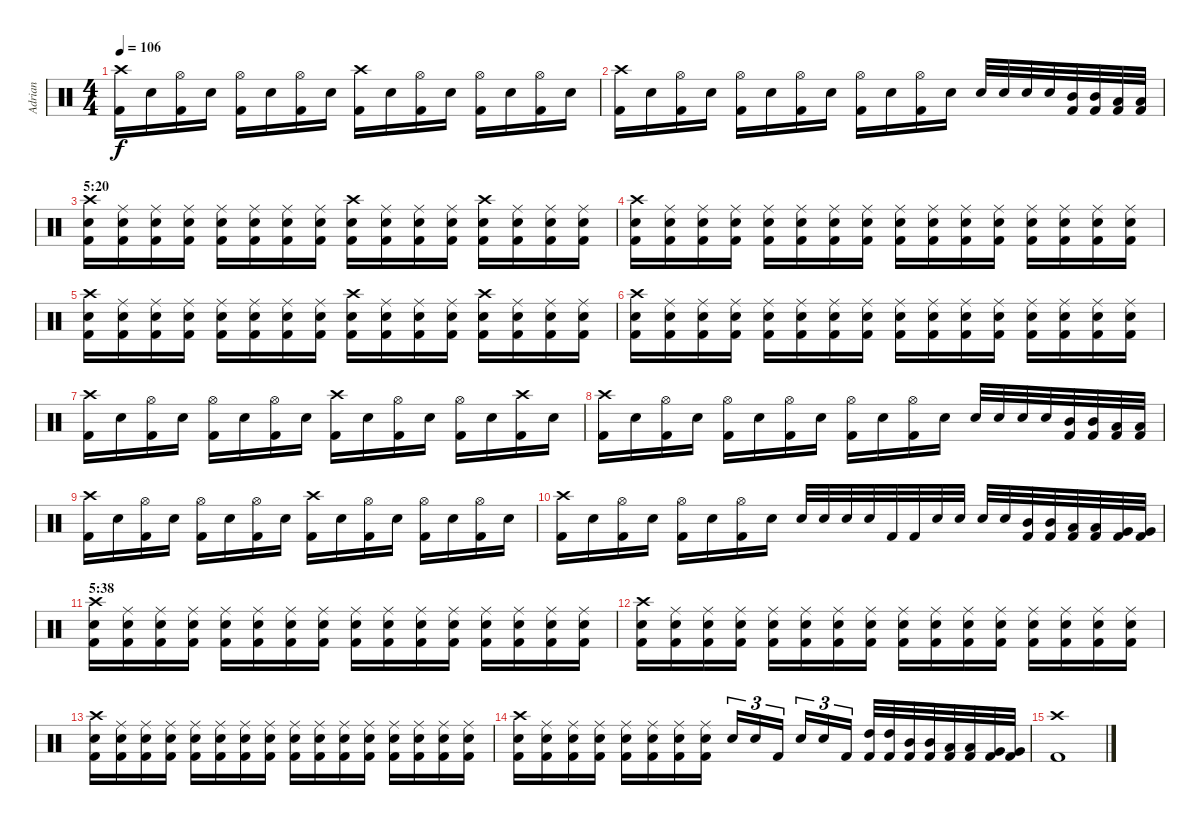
\track ("Adrian" "Adrian") {instrument percussion}
\staff {score}
\articulation defaults
\ts (4 4)
\tempo 106
\clef neutral
\ks c
("Kick (hit) 2" "Crash high (hit)").16{dy f} "Snare (hit) 2".16 ("Kick (hit) 2" "Hi-Hat (open)").16 "Snare (hit) 2".16 ("Kick (hit) 2" "Hi-Hat (open)").16 "Snare (hit) 2".16 ("Kick (hit) 2" "Hi-Hat (open)").16 "Snare (hit) 2".16 ("Kick (hit) 2" "Crash high (hit)").16 "Snare (hit) 2".16 ("Kick (hit) 2" "Hi-Hat (open)").16 "Snare (hit) 2".16 ("Kick (hit) 2" "Hi-Hat (open)").16 "Snare (hit) 2".16 ("Kick (hit) 2" "Hi-Hat (open)").16 "Snare (hit) 2".16 |
("Kick (hit) 2" "Crash high (hit)").16 "Snare (hit) 2".16 ("Kick (hit) 2" "Hi-Hat (open)").16 "Snare (hit) 2".16 ("Kick (hit) 2" "Hi-Hat (open)").16 "Snare (hit) 2".16 ("Kick (hit) 2" "Hi-Hat (open)").16 "Snare (hit) 2".16 ("Kick (hit) 2" "Hi-Hat (open)").16 "Snare (hit) 2".16 ("Kick (hit) 2" "Hi-Hat (open)").16 "Snare (hit) 2".16 "Snare (hit) 2".32 "Snare (hit) 2".32 "Snare (hit) 2".32 "Snare (hit) 2".32 ("Kick (hit) 2" "Mid Tom (hit)").32 ("Kick (hit) 2" "Mid Tom (hit)").32 ("Kick (hit) 2" "Low Tom (hit)").32 ("Kick (hit) 2" "Low Tom (hit)").32 |
\section ("" "5:20")
("Kick (hit) 2" "Snare (hit) 2" "Crash high (hit)").16 ("Kick (hit) 2" "Snare (hit) 2" "Ride (middle)").16 ("Kick (hit) 2" "Snare (hit) 2" "Ride (middle)").16 ("Kick (hit) 2" "Snare (hit) 2" "Ride (middle)").16 ("Kick (hit) 2" "Snare (hit) 2" "Ride (middle)").16 ("Kick (hit) 2" "Snare (hit) 2" "Ride (middle)").16 ("Kick (hit) 2" "Snare (hit) 2" "Ride (middle)").16 ("Kick (hit) 2" "Snare (hit) 2" "Ride (middle)").16 ("Kick (hit) 2" "Snare (hit) 2" "Crash high (hit)").16 ("Kick (hit) 2" "Snare (hit) 2" "Ride (middle)").16 ("Kick (hit) 2" "Snare (hit) 2" "Ride (middle)").16 ("Kick (hit) 2" "Snare (hit) 2" "Ride (middle)").16 ("Kick (hit) 2" "Snare (hit) 2" "Crash high (hit)").16 ("Kick (hit) 2" "Snare (hit) 2" "Ride (middle)").16 ("Kick (hit) 2" "Snare (hit) 2" "Ride (middle)").16 ("Kick (hit) 2" "Snare (hit) 2" "Ride (middle)").16 |
("Kick (hit) 2" "Snare (hit) 2" "Crash high (hit)").16 ("Kick (hit) 2" "Snare (hit) 2" "Ride (middle)").16 ("Kick (hit) 2" "Snare (hit) 2" "Ride (middle)").16 ("Kick (hit) 2" "Snare (hit) 2" "Ride (middle)").16 ("Kick (hit) 2" "Snare (hit) 2" "Ride (middle)").16 ("Kick (hit) 2" "Snare (hit) 2" "Ride (middle)").16 ("Kick (hit) 2" "Snare (hit) 2" "Ride (middle)").16 ("Kick (hit) 2" "Snare (hit) 2" "Ride (middle)").16 ("Kick (hit) 2" "Snare (hit) 2" "Ride (middle)").16 ("Kick (hit) 2" "Snare (hit) 2" "Ride (middle)").16 ("Kick (hit) 2" "Snare (hit) 2" "Ride (middle)").16 ("Kick (hit) 2" "Snare (hit) 2" "Ride (middle)").16 ("Kick (hit) 2" "Snare (hit) 2" "Ride (middle)").16 ("Kick (hit) 2" "Snare (hit) 2" "Ride (middle)").16 ("Kick (hit) 2" "Snare (hit) 2" "Ride (middle)").16 ("Kick (hit) 2" "Snare (hit) 2" "Ride (middle)").16 |
("Kick (hit) 2" "Snare (hit) 2" "Crash high (hit)").16 ("Kick (hit) 2" "Snare (hit) 2" "Ride (middle)").16 ("Kick (hit) 2" "Snare (hit) 2" "Ride (middle)").16 ("Kick (hit) 2" "Snare (hit) 2" "Ride (middle)").16 ("Kick (hit) 2" "Snare (hit) 2" "Ride (middle)").16 ("Kick (hit) 2" "Snare (hit) 2" "Ride (middle)").16 ("Kick (hit) 2" "Snare (hit) 2" "Ride (middle)").16 ("Kick (hit) 2" "Snare (hit) 2" "Ride (middle)").16 ("Kick (hit) 2" "Snare (hit) 2" "Crash high (hit)").16 ("Kick (hit) 2" "Snare (hit) 2" "Ride (middle)").16 ("Kick (hit) 2" "Snare (hit) 2" "Ride (middle)").16 ("Kick (hit) 2" "Snare (hit) 2" "Ride (middle)").16 ("Kick (hit) 2" "Snare (hit) 2" "Crash high (hit)").16 ("Kick (hit) 2" "Snare (hit) 2" "Ride (middle)").16 ("Kick (hit) 2" "Snare (hit) 2" "Ride (middle)").16 ("Kick (hit) 2" "Snare (hit) 2" "Ride (middle)").16 |
("Kick (hit) 2" "Snare (hit) 2" "Crash high (hit)").16 ("Kick (hit) 2" "Snare (hit) 2" "Ride (middle)").16 ("Kick (hit) 2" "Snare (hit) 2" "Ride (middle)").16 ("Kick (hit) 2" "Snare (hit) 2" "Ride (middle)").16 ("Kick (hit) 2" "Snare (hit) 2" "Ride (middle)").16 ("Kick (hit) 2" "Snare (hit) 2" "Ride (middle)").16 ("Kick (hit) 2" "Snare (hit) 2" "Ride (middle)").16 ("Kick (hit) 2" "Snare (hit) 2" "Ride (middle)").16 ("Kick (hit) 2" "Snare (hit) 2" "Ride (middle)").16 ("Kick (hit) 2" "Snare (hit) 2" "Ride (middle)").16 ("Kick (hit) 2" "Snare (hit) 2" "Ride (middle)").16 ("Kick (hit) 2" "Snare (hit) 2" "Ride (middle)").16 ("Kick (hit) 2" "Snare (hit) 2" "Ride (middle)").16 ("Kick (hit) 2" "Snare (hit) 2" "Ride (middle)").16 ("Kick (hit) 2" "Snare (hit) 2" "Ride (middle)").16 ("Kick (hit) 2" "Snare (hit) 2" "Ride (middle)").16 |
("Kick (hit) 2" "Crash high (hit)").16 "Snare (hit) 2".16 ("Kick (hit) 2" "Hi-Hat (open)").16 "Snare (hit) 2".16 ("Kick (hit) 2" "Hi-Hat (open)").16 "Snare (hit) 2".16 ("Kick (hit) 2" "Hi-Hat (open)").16 "Snare (hit) 2".16 ("Kick (hit) 2" "Crash high (hit)").16 "Snare (hit) 2".16 ("Kick (hit) 2" "Hi-Hat (open)").16 "Snare (hit) 2".16 ("Kick (hit) 2" "Hi-Hat (open)").16 "Snare (hit) 2".16 ("Kick (hit) 2" "Crash high (hit)").16 "Snare (hit) 2".16 |
("Kick (hit) 2" "Crash high (hit)").16 "Snare (hit) 2".16 ("Kick (hit) 2" "Hi-Hat (open)").16 "Snare (hit) 2".16 ("Kick (hit) 2" "Hi-Hat (open)").16 "Snare (hit) 2".16 ("Kick (hit) 2" "Hi-Hat (open)").16 "Snare (hit) 2".16 ("Kick (hit) 2" "Hi-Hat (open)").16 "Snare (hit) 2".16 ("Kick (hit) 2" "Hi-Hat (open)").16 "Snare (hit) 2".16 "Snare (hit) 2".32 "Snare (hit) 2".32 "Snare (hit) 2".32 "Snare (hit) 2".32 ("Kick (hit) 2" "Mid Tom (hit)").32 ("Kick (hit) 2" "Mid Tom (hit)").32 ("Kick (hit) 2" "Low Tom (hit)").32 ("Kick (hit) 2" "Low Tom (hit)").32 |
("Kick (hit) 2" "Crash high (hit)").16 "Snare (hit) 2".16 ("Kick (hit) 2" "Hi-Hat (open)").16 "Snare (hit) 2".16 ("Kick (hit) 2" "Hi-Hat (open)").16 "Snare (hit) 2".16 ("Kick (hit) 2" "Hi-Hat (open)").16 "Snare (hit) 2".16 ("Kick (hit) 2" "Crash high (hit)").16 "Snare (hit) 2".16 ("Kick (hit) 2" "Hi-Hat (open)").16 "Snare (hit) 2".16 ("Kick (hit) 2" "Hi-Hat (open)").16 "Snare (hit) 2".16 ("Kick (hit) 2" "Hi-Hat (open)").16 "Snare (hit) 2".16 |
("Kick (hit) 2" "Crash high (hit)").16 "Snare (hit) 2".16 ("Kick (hit) 2" "Hi-Hat (open)").16 "Snare (hit) 2".16 ("Kick (hit) 2" "Hi-Hat (open)").16 "Snare (hit) 2".16 ("Kick (hit) 2" "Hi-Hat (open)").16 "Snare (hit) 2".16 "Snare (hit) 2".32 "Snare (hit) 2".32 "Snare (hit) 2".32 "Snare (hit) 2".32 "Kick (hit) 2".32 "Kick (hit) 2".32 "Snare (hit) 2".32 "Snare (hit) 2".32 "Snare (hit) 2".32 "Snare (hit) 2".32 ("Kick (hit) 2" "Mid Tom (hit)").32 ("Kick (hit) 2" "Mid Tom (hit)").32 ("Kick (hit) 2" "Low Tom (hit)").32 ("Kick (hit) 2" "Low Tom (hit)").32 ("Kick (hit) 2" "Very Low Tom (hit)").32 ("Kick (hit) 2" "Very Low Tom (hit)").32 |
\section ("" "5:38")
("Kick (hit) 2" "Snare (hit) 2" "Crash high (hit)").16 ("Kick (hit) 2" "Snare (hit) 2" "Ride (middle)").16 ("Kick (hit) 2" "Snare (hit) 2" "Ride (middle)").16 ("Kick (hit) 2" "Snare (hit) 2" "Ride (middle)").16 ("Kick (hit) 2" "Snare (hit) 2" "Ride (middle)").16 ("Kick (hit) 2" "Snare (hit) 2" "Ride (middle)").16 ("Kick (hit) 2" "Snare (hit) 2" "Ride (middle)").16 ("Kick (hit) 2" "Snare (hit) 2" "Ride (middle)").16 ("Kick (hit) 2" "Snare (hit) 2" "Ride (middle)").16 ("Kick (hit) 2" "Snare (hit) 2" "Ride (middle)").16 ("Kick (hit) 2" "Snare (hit) 2" "Ride (middle)").16 ("Kick (hit) 2" "Snare (hit) 2" "Ride (middle)").16 ("Kick (hit) 2" "Snare (hit) 2" "Ride (middle)").16 ("Kick (hit) 2" "Snare (hit) 2" "Ride (middle)").16 ("Kick (hit) 2" "Snare (hit) 2" "Ride (middle)").16 ("Kick (hit) 2" "Snare (hit) 2" "Ride (middle)").16 |
("Kick (hit) 2" "Snare (hit) 2" "Crash high (hit)").16 ("Kick (hit) 2" "Snare (hit) 2" "Ride (middle)").16 ("Kick (hit) 2" "Snare (hit) 2" "Ride (middle)").16 ("Kick (hit) 2" "Snare (hit) 2" "Ride (middle)").16 ("Kick (hit) 2" "Snare (hit) 2" "Ride (middle)").16 ("Kick (hit) 2" "Snare (hit) 2" "Ride (middle)").16 ("Kick (hit) 2" "Snare (hit) 2" "Ride (middle)").16 ("Kick (hit) 2" "Snare (hit) 2" "Ride (middle)").16 ("Kick (hit) 2" "Snare (hit) 2" "Ride (middle)").16 ("Kick (hit) 2" "Snare (hit) 2" "Ride (middle)").16 ("Kick (hit) 2" "Snare (hit) 2" "Ride (middle)").16 ("Kick (hit) 2" "Snare (hit) 2" "Ride (middle)").16 ("Kick (hit) 2" "Snare (hit) 2" "Ride (middle)").16 ("Kick (hit) 2" "Snare (hit) 2" "Ride (middle)").16 ("Kick (hit) 2" "Snare (hit) 2" "Ride (middle)").16 ("Kick (hit) 2" "Snare (hit) 2" "Ride (middle)").16 |
("Kick (hit) 2" "Snare (hit) 2" "Crash high (hit)").16 ("Kick (hit) 2" "Snare (hit) 2" "Ride (middle)").16 ("Kick (hit) 2" "Snare (hit) 2" "Ride (middle)").16 ("Kick (hit) 2" "Snare (hit) 2" "Ride (middle)").16 ("Kick (hit) 2" "Snare (hit) 2" "Ride (middle)").16 ("Kick (hit) 2" "Snare (hit) 2" "Ride (middle)").16 ("Kick (hit) 2" "Snare (hit) 2" "Ride (middle)").16 ("Kick (hit) 2" "Snare (hit) 2" "Ride (middle)").16 ("Kick (hit) 2" "Snare (hit) 2" "Ride (middle)").16 ("Kick (hit) 2" "Snare (hit) 2" "Ride (middle)").16 ("Kick (hit) 2" "Snare (hit) 2" "Ride (middle)").16 ("Kick (hit) 2" "Snare (hit) 2" "Ride (middle)").16 ("Kick (hit) 2" "Snare (hit) 2" "Ride (middle)").16 ("Kick (hit) 2" "Snare (hit) 2" "Ride (middle)").16 ("Kick (hit) 2" "Snare (hit) 2" "Ride (middle)").16 ("Kick (hit) 2" "Snare (hit) 2" "Ride (middle)").16 |
("Kick (hit) 2" "Snare (hit) 2" "Crash high (hit)").16 ("Kick (hit) 2" "Snare (hit) 2" "Ride (middle)").16 ("Kick (hit) 2" "Snare (hit) 2" "Ride (middle)").16 ("Kick (hit) 2" "Snare (hit) 2" "Ride (middle)").16 ("Kick (hit) 2" "Snare (hit) 2" "Ride (middle)").16 ("Kick (hit) 2" "Snare (hit) 2" "Ride (middle)").16 ("Kick (hit) 2" "Snare (hit) 2" "Ride (middle)").16 ("Kick (hit) 2" "Snare (hit) 2" "Ride (middle)").16 "Snare (hit) 2".16{tu (3 2)} "Snare (hit) 2".16{tu (3 2)} "Kick (hit) 2".16{tu (3 2)} "Snare (hit) 2".16{tu (3 2)} "Snare (hit) 2".16{tu (3 2)} "Kick (hit) 2".16{tu (3 2)} ("Kick (hit) 2" "High Tom (hit)").32 ("Kick (hit) 2" "High Tom (hit)").32 ("Kick (hit) 2" "Mid Tom (hit)").32 ("Kick (hit) 2" "Mid Tom (hit)").32 ("Kick (hit) 2" "Low Tom (hit)").32 ("Kick (hit) 2" "Low Tom (hit)").32 ("Kick (hit) 2" "Very Low Tom (hit)").32 ("Kick (hit) 2" "Very Low Tom (hit)").32 |
("Kick (hit) 2" "Crash high (hit)").1
